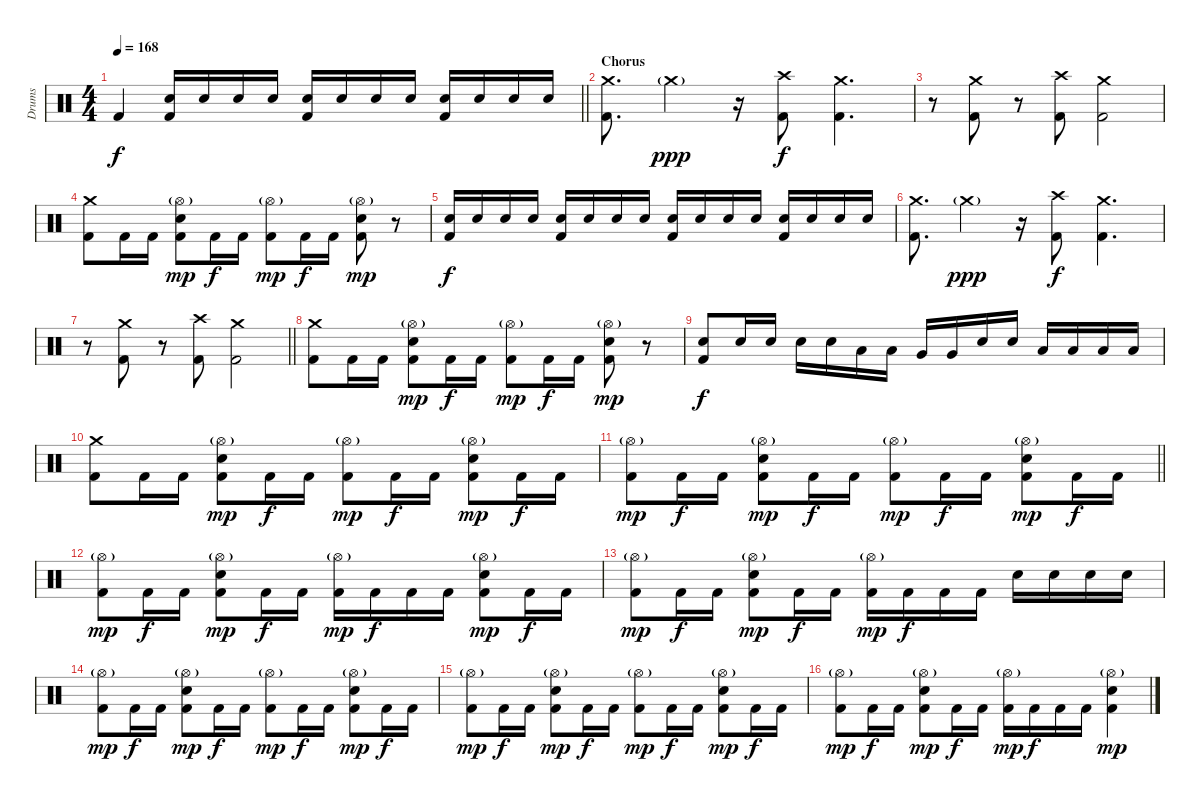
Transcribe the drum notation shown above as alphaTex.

\track ("Drums" "Drums") {instrument percussion}
\staff {score}
\articulation defaults
\ts (4 4)
\tempo 168
\clef neutral
\barLineRight lightlight
\ks c "Kick (hit) 2".4{dy f}
("Snare (hit) 2" "Kick (hit) 2").16 "Snare (hit) 2".16 "Snare (hit) 2".16 "Snare (hit) 2".16 ("Snare (hit) 2" "Kick (hit) 2").16 "Snare (hit) 2".16 "Snare (hit) 2".16 "Snare (hit) 2".16 ("Snare (hit) 2" "Kick (hit) 2").16 "Snare (hit) 2".16 "Snare (hit) 2".16 "Snare (hit) 2".16 |
\section ("" "Chorus")
("Crash medium (hit)" "Kick (hit) 2").8{d} "Crash medium (hit)"{g}.4{dy ppp} r.16 ("Crash high (hit)" "Kick (hit) 2").8{dy f} ("Crash medium (hit)" "Kick (hit) 2").4{d} |
r.8 ("Crash medium (hit)" "Kick (hit) 2").8 r.8 ("Crash high (hit)" "Kick (hit) 2").8 ("Crash medium (hit)" "Kick (hit) 2").2 |
("Crash medium (hit)" "Kick (hit) 2").8 "Kick (hit) 2".16 "Kick (hit) 2".16 ("Snare (hit) 2" "Hi-Hat (open)"{g} "Kick (hit) 2").8{dy mp} "Kick (hit) 2".16{dy f} "Kick (hit) 2".16 ("Hi-Hat (open)"{g} "Kick (hit) 2").8{dy mp} "Kick (hit) 2".16{dy f} "Kick (hit) 2".16 ("Snare (hit) 2" "Hi-Hat (open)"{g} "Kick (hit) 2").8{dy mp} r.8 |
("Snare (hit) 2" "Kick (hit) 2").16{dy f} "Snare (hit) 2".16 "Snare (hit) 2".16 "Snare (hit) 2".16 ("Snare (hit) 2" "Kick (hit) 2").16 "Snare (hit) 2".16 "Snare (hit) 2".16 "Snare (hit) 2".16 ("Snare (hit) 2" "Kick (hit) 2").16 "Snare (hit) 2".16 "Snare (hit) 2".16 "Snare (hit) 2".16 ("Snare (hit) 2" "Kick (hit) 2").16 "Snare (hit) 2".16 "Snare (hit) 2".16 "Snare (hit) 2".16 |
("Crash medium (hit)" "Kick (hit) 2").8{d} "Crash medium (hit)"{g}.4{dy ppp} r.16 ("Crash high (hit)" "Kick (hit) 2").8{dy f} ("Crash medium (hit)" "Kick (hit) 2").4{d} |
\barLineRight lightlight
r.8 ("Crash medium (hit)" "Kick (hit) 2").8 r.8 ("Crash high (hit)" "Kick (hit) 2").8 ("Crash medium (hit)" "Kick (hit) 2").2 |
("Crash medium (hit)" "Kick (hit) 2").8 "Kick (hit) 2".16 "Kick (hit) 2".16 ("Snare (hit) 2" "Hi-Hat (open)"{g} "Kick (hit) 2").8{dy mp} "Kick (hit) 2".16{dy f} "Kick (hit) 2".16 ("Hi-Hat (open)"{g} "Kick (hit) 2").8{dy mp} "Kick (hit) 2".16{dy f} "Kick (hit) 2".16 ("Snare (hit) 2" "Hi-Hat (open)"{g} "Kick (hit) 2").8{dy mp} r.8 |
("Snare (hit) 2" "Kick (hit) 2").8{dy f} "Snare (hit) 2".16 "Snare (hit) 2".16 "Snare (hit) 2".16 "Snare (hit) 2".16 "Low Tom (hit)".16 "Low Tom (hit)".16 "Very Low Tom (hit)".16 "Very Low Tom (hit)".16 "Snare (hit) 2".16 "Snare (hit) 2".16 "Low Tom (hit)".16 "Low Tom (hit)".16 "Low Floor Tom (hit)".16 "Low Floor Tom (hit)".16 |
("Crash medium (hit)" "Kick (hit) 2").8 "Kick (hit) 2".16 "Kick (hit) 2".16 ("Snare (hit) 2" "Hi-Hat (open)"{g} "Kick (hit) 2").8{dy mp} "Kick (hit) 2".16{dy f} "Kick (hit) 2".16 ("Hi-Hat (open)"{g} "Kick (hit) 2").8{dy mp} "Kick (hit) 2".16{dy f} "Kick (hit) 2".16 ("Snare (hit) 2" "Hi-Hat (open)"{g} "Kick (hit) 2").8{dy mp} "Kick (hit) 2".16{dy f} "Kick (hit) 2".16 |
\barLineRight lightlight
("Hi-Hat (open)"{g} "Kick (hit) 2").8{dy mp} "Kick (hit) 2".16{dy f} "Kick (hit) 2".16 ("Snare (hit) 2" "Hi-Hat (open)"{g} "Kick (hit) 2").8{dy mp} "Kick (hit) 2".16{dy f} "Kick (hit) 2".16 ("Hi-Hat (open)"{g} "Kick (hit) 2").8{dy mp} "Kick (hit) 2".16{dy f} "Kick (hit) 2".16 ("Snare (hit) 2" "Hi-Hat (open)"{g} "Kick (hit) 2").8{dy mp} "Kick (hit) 2".16{dy f} "Kick (hit) 2".16 |
("Hi-Hat (open)"{g} "Kick (hit) 2").8{dy mp} "Kick (hit) 2".16{dy f} "Kick (hit) 2".16 ("Snare (hit) 2" "Hi-Hat (open)"{g} "Kick (hit) 2").8{dy mp} "Kick (hit) 2".16{dy f} "Kick (hit) 2".16 ("Hi-Hat (open)"{g} "Kick (hit) 2").16{dy mp} "Kick (hit) 2".16{dy f} "Kick (hit) 2".16 "Kick (hit) 2".16 ("Snare (hit) 2" "Hi-Hat (open)"{g} "Kick (hit) 2").8{dy mp} "Kick (hit) 2".16{dy f} "Kick (hit) 2".16 |
("Hi-Hat (open)"{g} "Kick (hit) 2").8{dy mp} "Kick (hit) 2".16{dy f} "Kick (hit) 2".16 ("Snare (hit) 2" "Hi-Hat (open)"{g} "Kick (hit) 2").8{dy mp} "Kick (hit) 2".16{dy f} "Kick (hit) 2".16 ("Hi-Hat (open)"{g} "Kick (hit) 2").16{dy mp} "Kick (hit) 2".16{dy f} "Kick (hit) 2".16 "Kick (hit) 2".16 "Snare (hit) 2".16 "Snare (hit) 2".16 "Snare (hit) 2".16 "Snare (hit) 2".16 |
("Hi-Hat (open)"{g} "Kick (hit) 2").8{dy mp} "Kick (hit) 2".16{dy f} "Kick (hit) 2".16 ("Snare (hit) 2" "Hi-Hat (open)"{g} "Kick (hit) 2").8{dy mp} "Kick (hit) 2".16{dy f} "Kick (hit) 2".16 ("Hi-Hat (open)"{g} "Kick (hit) 2").8{dy mp} "Kick (hit) 2".16{dy f} "Kick (hit) 2".16 ("Snare (hit) 2" "Hi-Hat (open)"{g} "Kick (hit) 2").8{dy mp} "Kick (hit) 2".16{dy f} "Kick (hit) 2".16 |
("Hi-Hat (open)"{g} "Kick (hit) 2").8{dy mp} "Kick (hit) 2".16{dy f} "Kick (hit) 2".16 ("Snare (hit) 2" "Hi-Hat (open)"{g} "Kick (hit) 2").8{dy mp} "Kick (hit) 2".16{dy f} "Kick (hit) 2".16 ("Hi-Hat (open)"{g} "Kick (hit) 2").8{dy mp} "Kick (hit) 2".16{dy f} "Kick (hit) 2".16 ("Snare (hit) 2" "Hi-Hat (open)"{g} "Kick (hit) 2").8{dy mp} "Kick (hit) 2".16{dy f} "Kick (hit) 2".16 |
("Hi-Hat (open)"{g} "Kick (hit) 2").8{dy mp} "Kick (hit) 2".16{dy f} "Kick (hit) 2".16 ("Snare (hit) 2" "Hi-Hat (open)"{g} "Kick (hit) 2").8{dy mp} "Kick (hit) 2".16{dy f} "Kick (hit) 2".16 ("Hi-Hat (open)"{g} "Kick (hit) 2").16{dy mp} "Kick (hit) 2".16{dy f} "Kick (hit) 2".16 "Kick (hit) 2".16 ("Snare (hit) 2" "Hi-Hat (open)"{g} "Kick (hit) 2").4{dy mp}
